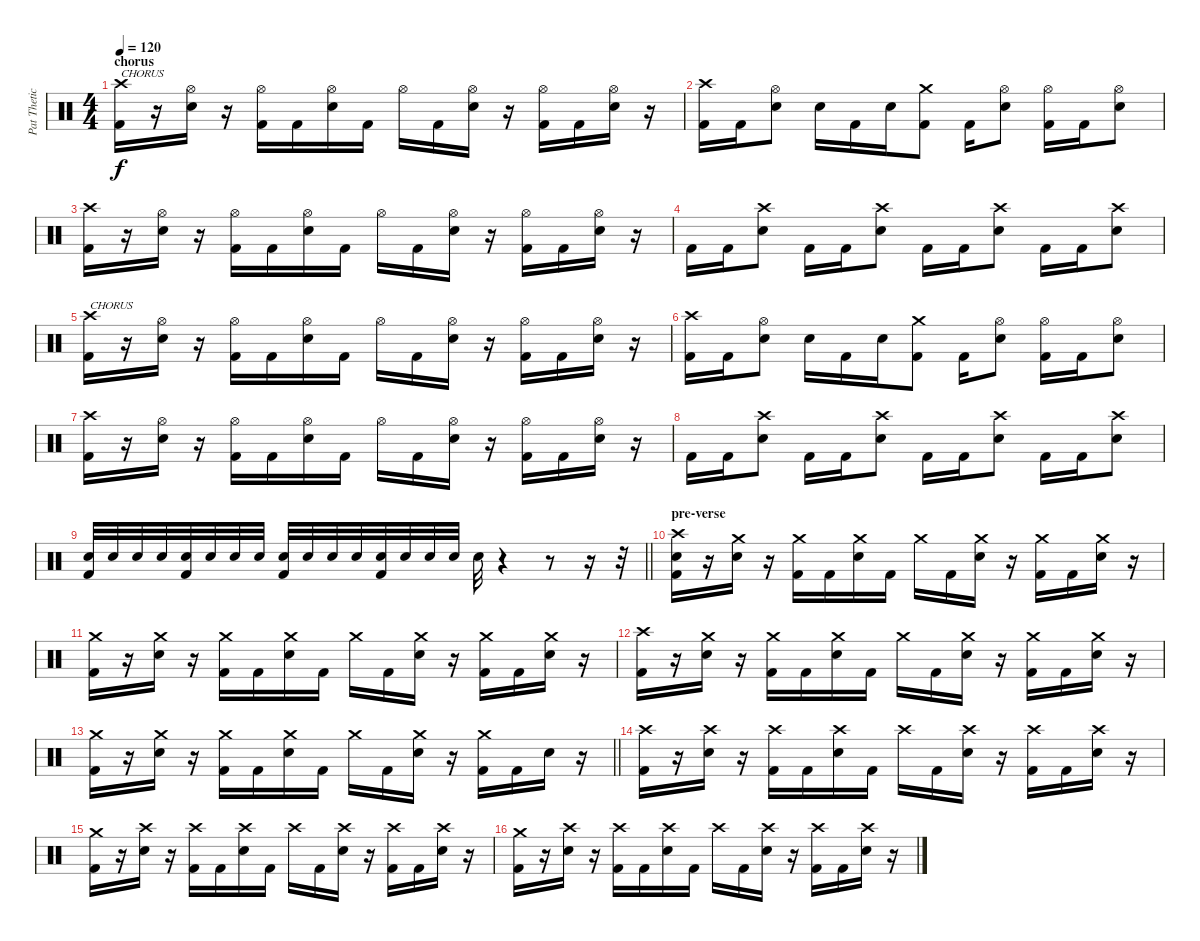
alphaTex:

\track ("Pat Thetic" "Pat Thetic") {instrument percussion}
\staff {score}
\articulation defaults
\ts (4 4)
\section ("" "chorus")
\tempo 120
\clef neutral
\ks c
("Crash high (hit)" "Kick (hit) 2").16{txt "CHORUS" dy f} r.16 ("Hi-Hat (open)" "Snare (hit) 2").16 r.16 ("Hi-Hat (open)" "Kick (hit) 2").16 "Kick (hit) 2".16 ("Hi-Hat (open)" "Snare (hit) 2").16 "Kick (hit) 2".16 "Hi-Hat (open)".16 "Kick (hit) 2".16 ("Hi-Hat (open)" "Snare (hit) 2").16 r.16 ("Hi-Hat (open)" "Kick (hit) 2").16 "Kick (hit) 2".16 ("Hi-Hat (open)" "Snare (hit) 2").16 r.16 |
("Crash high (hit)" "Kick (hit) 2").16 "Kick (hit) 2".16 ("Hi-Hat (open)" "Snare (hit) 2").8 "Snare (hit) 2".16 "Kick (hit) 2".16 "Snare (hit) 2".16 ("Crash medium (hit)" "Kick (hit) 2").8 "Kick (hit) 2".16 ("Hi-Hat (open)" "Snare (hit) 2").8 ("Hi-Hat (open)" "Kick (hit) 2").16 "Kick (hit) 2".16 ("Hi-Hat (open)" "Snare (hit) 2").8 |
("Crash high (hit)" "Kick (hit) 2").16 r.16 ("Hi-Hat (open)" "Snare (hit) 2").16 r.16 ("Hi-Hat (open)" "Kick (hit) 2").16 "Kick (hit) 2".16 ("Hi-Hat (open)" "Snare (hit) 2").16 "Kick (hit) 2".16 "Hi-Hat (open)".16 "Kick (hit) 2".16 ("Hi-Hat (open)" "Snare (hit) 2").16 r.16 ("Hi-Hat (open)" "Kick (hit) 2").16 "Kick (hit) 2".16 ("Hi-Hat (open)" "Snare (hit) 2").16 r.16 |
"Kick (hit) 2".16 "Kick (hit) 2".16 ("Crash high (hit)" "Snare (hit) 2").8 "Kick (hit) 2".16 "Kick (hit) 2".16 ("Crash high (hit)" "Snare (hit) 2").8 "Kick (hit) 2".16 "Kick (hit) 2".16 ("Crash high (hit)" "Snare (hit) 2").8 "Kick (hit) 2".16 "Kick (hit) 2".16 ("Crash high (hit)" "Snare (hit) 2").8 |
("Crash high (hit)" "Kick (hit) 2").16{txt "CHORUS"} r.16 ("Hi-Hat (open)" "Snare (hit) 2").16 r.16 ("Hi-Hat (open)" "Kick (hit) 2").16 "Kick (hit) 2".16 ("Hi-Hat (open)" "Snare (hit) 2").16 "Kick (hit) 2".16 "Hi-Hat (open)".16 "Kick (hit) 2".16 ("Hi-Hat (open)" "Snare (hit) 2").16 r.16 ("Hi-Hat (open)" "Kick (hit) 2").16 "Kick (hit) 2".16 ("Hi-Hat (open)" "Snare (hit) 2").16 r.16 |
("Crash high (hit)" "Kick (hit) 2").16 "Kick (hit) 2".16 ("Hi-Hat (open)" "Snare (hit) 2").8 "Snare (hit) 2".16 "Kick (hit) 2".16 "Snare (hit) 2".16 ("Crash medium (hit)" "Kick (hit) 2").8 "Kick (hit) 2".16 ("Hi-Hat (open)" "Snare (hit) 2").8 ("Hi-Hat (open)" "Kick (hit) 2").16 "Kick (hit) 2".16 ("Hi-Hat (open)" "Snare (hit) 2").8 |
("Crash high (hit)" "Kick (hit) 2").16 r.16 ("Hi-Hat (open)" "Snare (hit) 2").16 r.16 ("Hi-Hat (open)" "Kick (hit) 2").16 "Kick (hit) 2".16 ("Hi-Hat (open)" "Snare (hit) 2").16 "Kick (hit) 2".16 "Hi-Hat (open)".16 "Kick (hit) 2".16 ("Hi-Hat (open)" "Snare (hit) 2").16 r.16 ("Hi-Hat (open)" "Kick (hit) 2").16 "Kick (hit) 2".16 ("Hi-Hat (open)" "Snare (hit) 2").16 r.16 |
"Kick (hit) 2".16 "Kick (hit) 2".16 ("Crash high (hit)" "Snare (hit) 2").8 "Kick (hit) 2".16 "Kick (hit) 2".16 ("Crash high (hit)" "Snare (hit) 2").8 "Kick (hit) 2".16 "Kick (hit) 2".16 ("Crash high (hit)" "Snare (hit) 2").8 "Kick (hit) 2".16 "Kick (hit) 2".16 ("Crash high (hit)" "Snare (hit) 2").8 |
\barLineRight lightlight
("Snare (hit) 2" "Kick (hit) 2").32 "Snare (hit) 2".32 "Snare (hit) 2".32 "Snare (hit) 2".32 ("Snare (hit) 2" "Kick (hit) 2").32 "Snare (hit) 2".32 "Snare (hit) 2".32 "Snare (hit) 2".32 ("Snare (hit) 2" "Kick (hit) 2").32 "Snare (hit) 2".32 "Snare (hit) 2".32 "Snare (hit) 2".32 ("Snare (hit) 2" "Kick (hit) 2").32 "Snare (hit) 2".32 "Snare (hit) 2".32 "Snare (hit) 2".32 "Snare (hit) 2".32 r.4 r.8 r.16 r.32 |
\section ("" "pre-verse")
("Crash high (hit)" "Snare (hit) 2" "Kick (hit) 2").16 r.16 ("Crash medium (hit)" "Snare (hit) 2").16 r.16 ("Crash medium (hit)" "Kick (hit) 2").16 "Kick (hit) 2".16 ("Crash medium (hit)" "Snare (hit) 2").16 "Kick (hit) 2".16 "Crash medium (hit)".16 "Kick (hit) 2".16 ("Crash medium (hit)" "Snare (hit) 2").16 r.16 ("Crash medium (hit)" "Kick (hit) 2").16 "Kick (hit) 2".16 ("Crash medium (hit)" "Snare (hit) 2").16 r.16 |
("Crash medium (hit)" "Kick (hit) 2").16 r.16 ("Crash medium (hit)" "Snare (hit) 2").16 r.16 ("Crash medium (hit)" "Kick (hit) 2").16 "Kick (hit) 2".16 ("Crash medium (hit)" "Snare (hit) 2").16 "Kick (hit) 2".16 "Crash medium (hit)".16 "Kick (hit) 2".16 ("Crash medium (hit)" "Snare (hit) 2").16 r.16 ("Crash medium (hit)" "Kick (hit) 2").16 "Kick (hit) 2".16 ("Crash medium (hit)" "Snare (hit) 2").16 r.16 |
("Crash high (hit)" "Kick (hit) 2").16 r.16 ("Crash medium (hit)" "Snare (hit) 2").16 r.16 ("Crash medium (hit)" "Kick (hit) 2").16 "Kick (hit) 2".16 ("Crash medium (hit)" "Snare (hit) 2").16 "Kick (hit) 2".16 "Crash medium (hit)".16 "Kick (hit) 2".16 ("Crash medium (hit)" "Snare (hit) 2").16 r.16 ("Crash medium (hit)" "Kick (hit) 2").16 "Kick (hit) 2".16 ("Crash medium (hit)" "Snare (hit) 2").16 r.16 |
\barLineRight lightlight
("Crash medium (hit)" "Kick (hit) 2").16 r.16 ("Crash medium (hit)" "Snare (hit) 2").16 r.16 ("Crash medium (hit)" "Kick (hit) 2").16 "Kick (hit) 2".16 ("Crash medium (hit)" "Snare (hit) 2").16 "Kick (hit) 2".16 "Crash medium (hit)".16 "Kick (hit) 2".16 ("Crash medium (hit)" "Snare (hit) 2").16 r.16 ("Crash medium (hit)" "Kick (hit) 2").16 "Kick (hit) 2".16 "Snare (hit) 2".16 r.16 |
("Crash high (hit)" "Kick (hit) 2").16 r.16 ("Crash high (hit)" "Snare (hit) 2").16 r.16 ("Crash high (hit)" "Kick (hit) 2").16 "Kick (hit) 2".16 ("Crash high (hit)" "Snare (hit) 2").16 "Kick (hit) 2".16 "Crash high (hit)".16 "Kick (hit) 2".16 ("Crash high (hit)" "Snare (hit) 2").16 r.16 ("Crash high (hit)" "Kick (hit) 2").16 "Kick (hit) 2".16 ("Crash high (hit)" "Snare (hit) 2").16 r.16 |
("Crash medium (hit)" "Kick (hit) 2").16 r.16 ("Crash high (hit)" "Snare (hit) 2").16 r.16 ("Crash high (hit)" "Kick (hit) 2").16 "Kick (hit) 2".16 ("Crash high (hit)" "Snare (hit) 2").16 "Kick (hit) 2".16 "Crash high (hit)".16 "Kick (hit) 2".16 ("Crash high (hit)" "Snare (hit) 2").16 r.16 ("Crash high (hit)" "Kick (hit) 2").16 "Kick (hit) 2".16 ("Crash high (hit)" "Snare (hit) 2").16 r.16 |
("Crash medium (hit)" "Kick (hit) 2").16 r.16 ("Crash high (hit)" "Snare (hit) 2").16 r.16 ("Crash high (hit)" "Kick (hit) 2").16 "Kick (hit) 2".16 ("Crash high (hit)" "Snare (hit) 2").16 "Kick (hit) 2".16 "Crash high (hit)".16 "Kick (hit) 2".16 ("Crash high (hit)" "Snare (hit) 2").16 r.16 ("Crash high (hit)" "Kick (hit) 2").16 "Kick (hit) 2".16 ("Crash high (hit)" "Snare (hit) 2").16 r.16
